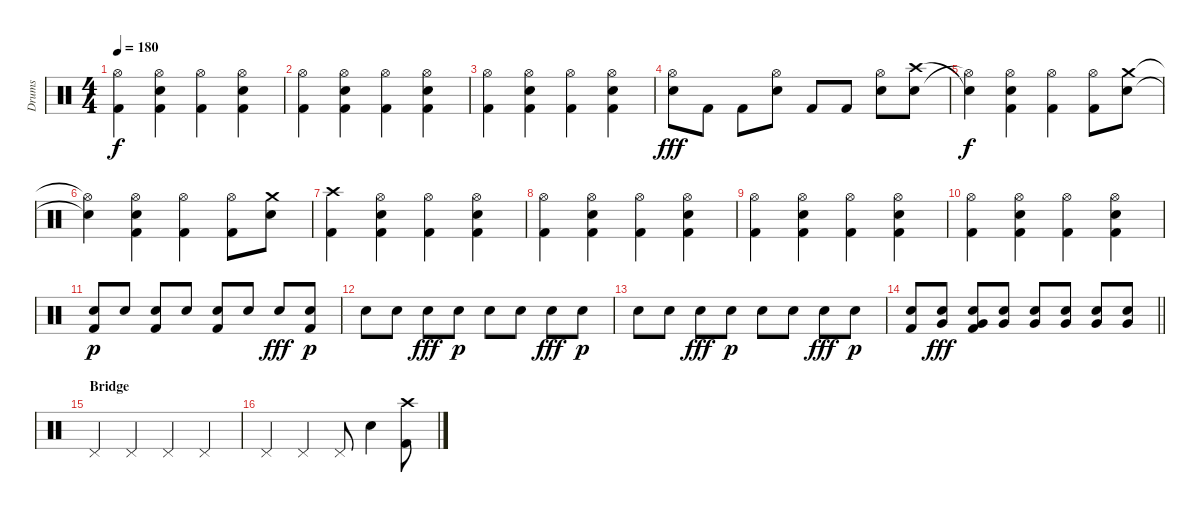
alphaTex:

\track ("Drums" "Drums") {instrument percussion}
\staff {score}
\articulation defaults
\ts (4 4)
\tempo 180
\clef neutral
\ks c
("Hi-Hat (open)" "Kick (hit) 2").4{dy f} ("Hi-Hat (open)" "Electric Snare (hit)" "Kick (hit) 2").4 ("Hi-Hat (open)" "Kick (hit) 2").4 ("Hi-Hat (open)" "Electric Snare (hit)" "Kick (hit) 2").4 |
("Hi-Hat (open)" "Kick (hit) 2").4 ("Hi-Hat (open)" "Electric Snare (hit)" "Kick (hit) 2").4 ("Hi-Hat (open)" "Kick (hit) 2").4 ("Hi-Hat (open)" "Electric Snare (hit)" "Kick (hit) 2").4 |
("Hi-Hat (open)" "Kick (hit) 2").4 ("Hi-Hat (open)" "Electric Snare (hit)" "Kick (hit) 2").4 ("Hi-Hat (open)" "Kick (hit) 2").4 ("Hi-Hat (open)" "Electric Snare (hit)" "Kick (hit) 2").4 |
("Hi-Hat (open)" "Electric Snare (hit)").8{dy fff} "Kick (hit) 2".8 "Kick (hit) 2".8 ("Hi-Hat (open)" "Electric Snare (hit)").8 "Kick (hit) 2".8 "Kick (hit) 2".8 ("Hi-Hat (open)" "Electric Snare (hit)").8 ("Crash high (hit)" "Electric Snare (hit)").8 |
("Snare (hit)"{t} "Hi-Hat (open)"{t}).4{dy f} ("Hi-Hat (open)" "Electric Snare (hit)" "Kick (hit) 2").4 ("Hi-Hat (open)" "Kick (hit) 2").4 ("Hi-Hat (open)" "Kick (hit) 2").8 ("Crash medium (hit)" "Electric Snare (hit)").8 |
("Hi-Hat (open)"{t} "Snare (hit)"{t}).4 ("Hi-Hat (open)" "Electric Snare (hit)" "Kick (hit) 2").4 ("Hi-Hat (open)" "Kick (hit) 2").4 ("Hi-Hat (open)" "Kick (hit) 2").8 ("Crash medium (hit)" "Electric Snare (hit)").8 |
("Crash high (hit)" "Kick (hit) 2").4 ("Hi-Hat (open)" "Electric Snare (hit)" "Kick (hit) 2").4 ("Hi-Hat (open)" "Kick (hit) 2").4 ("Hi-Hat (open)" "Electric Snare (hit)" "Kick (hit) 2").4 |
("Hi-Hat (open)" "Kick (hit) 2").4 ("Hi-Hat (open)" "Electric Snare (hit)" "Kick (hit) 2").4 ("Hi-Hat (open)" "Kick (hit) 2").4 ("Hi-Hat (open)" "Electric Snare (hit)" "Kick (hit) 2").4 |
("Hi-Hat (open)" "Kick (hit) 2").4 ("Hi-Hat (open)" "Electric Snare (hit)" "Kick (hit) 2").4 ("Hi-Hat (open)" "Kick (hit) 2").4 ("Hi-Hat (open)" "Electric Snare (hit)" "Kick (hit) 2").4 |
("Hi-Hat (open)" "Kick (hit) 2").4 ("Hi-Hat (open)" "Electric Snare (hit)" "Kick (hit) 2").4 ("Hi-Hat (open)" "Kick (hit) 2").4 ("Hi-Hat (open)" "Electric Snare (hit)" "Kick (hit) 2").4 |
("Electric Snare (hit)" "Kick (hit) 2").8{dy p} "Electric Snare (hit)".8 ("Electric Snare (hit)" "Kick (hit) 2").8 "Electric Snare (hit)".8 ("Electric Snare (hit)" "Kick (hit) 2").8 "Electric Snare (hit)".8 "Electric Snare (hit)".8{dy fff} ("Electric Snare (hit)" "Kick (hit) 2").8{dy p} |
"Electric Snare (hit)".8 "Electric Snare (hit)".8 "Electric Snare (hit)".8{dy fff} "Electric Snare (hit)".8{dy p} "Electric Snare (hit)".8 "Electric Snare (hit)".8 "Electric Snare (hit)".8{dy fff} "Electric Snare (hit)".8{dy p} |
"Electric Snare (hit)".8 "Electric Snare (hit)".8 "Electric Snare (hit)".8{dy fff} "Electric Snare (hit)".8{dy p} "Electric Snare (hit)".8 "Electric Snare (hit)".8 "Electric Snare (hit)".8{dy fff} "Electric Snare (hit)".8{dy p} |
\barLineRight lightlight
("Electric Snare (hit)" "Kick (hit) 2").8 ("Very Low Tom (hit)" "Electric Snare (hit)").8{dy fff} ("Very Low Tom (hit)" "Electric Snare (hit)" "Kick (hit) 2").8 ("Very Low Tom (hit)" "Electric Snare (hit)").8 ("Very Low Tom (hit)" "Electric Snare (hit)").8 ("Very Low Tom (hit)" "Electric Snare (hit)").8 ("Very Low Tom (hit)" "Electric Snare (hit)").8 ("Very Low Tom (hit)" "Electric Snare (hit)").8 |
\section ("" "Bridge")
"Pedal Hi-Hat (hit)".4 "Pedal Hi-Hat (hit)".4 "Pedal Hi-Hat (hit)".4 "Pedal Hi-Hat (hit)".4 |
"Pedal Hi-Hat (hit)".4 "Pedal Hi-Hat (hit)".4 "Pedal Hi-Hat (hit)".8 "Electric Snare (hit)".4 ("Crash high (hit)" "Kick (hit) 2").8
